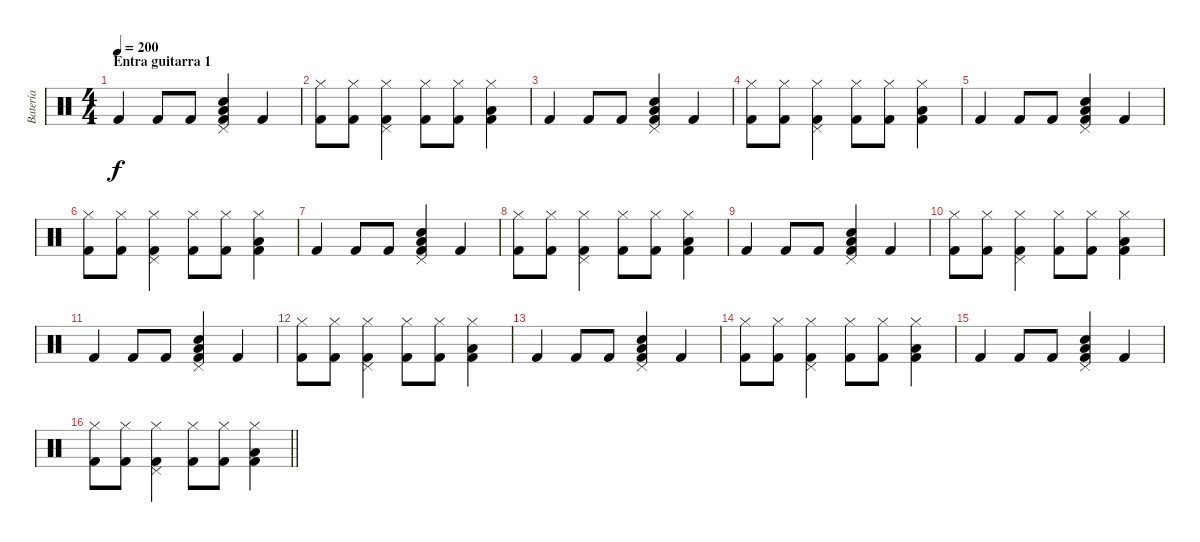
\track ("Batería" "Batería") {instrument percussion}
\staff {score}
\articulation defaults
\ts (4 4)
\section ("" "Entra guitarra 1")
\tempo 200
\clef neutral
\ks c "Kick (hit) 2".4{dy f} "Kick (hit) 2".8 "Kick (hit) 2".8
("Low Floor Tom (hit)" "Electric Snare (hit)" "Pedal Hi-Hat (hit)" "Kick (hit) 2").4 "Kick (hit) 2".4 |
("Hi-Hat (closed)" "Kick (hit) 2").8 ("Hi-Hat (closed)" "Kick (hit) 2").8 ("Hi-Hat (closed)" "Pedal Hi-Hat (hit)" "Kick (hit) 2").4 ("Hi-Hat (closed)" "Kick (hit) 2").8 ("Hi-Hat (closed)" "Kick (hit) 2").8 ("Hi-Hat (closed)" "Low Floor Tom (hit)" "Kick (hit) 2").4 |
"Kick (hit) 2".4 "Kick (hit) 2".8 "Kick (hit) 2".8 ("Low Floor Tom (hit)" "Electric Snare (hit)" "Pedal Hi-Hat (hit)" "Kick (hit) 2").4 "Kick (hit) 2".4 |
("Hi-Hat (closed)" "Kick (hit) 2").8 ("Hi-Hat (closed)" "Kick (hit) 2").8 ("Hi-Hat (closed)" "Pedal Hi-Hat (hit)" "Kick (hit) 2").4 ("Hi-Hat (closed)" "Kick (hit) 2").8 ("Hi-Hat (closed)" "Kick (hit) 2").8 ("Hi-Hat (closed)" "Low Floor Tom (hit)" "Kick (hit) 2").4 |
"Kick (hit) 2".4 "Kick (hit) 2".8 "Kick (hit) 2".8 ("Low Floor Tom (hit)" "Electric Snare (hit)" "Pedal Hi-Hat (hit)" "Kick (hit) 2").4 "Kick (hit) 2".4 |
("Hi-Hat (closed)" "Kick (hit) 2").8 ("Hi-Hat (closed)" "Kick (hit) 2").8 ("Hi-Hat (closed)" "Pedal Hi-Hat (hit)" "Kick (hit) 2").4 ("Hi-Hat (closed)" "Kick (hit) 2").8 ("Hi-Hat (closed)" "Kick (hit) 2").8 ("Hi-Hat (closed)" "Low Floor Tom (hit)" "Kick (hit) 2").4 |
"Kick (hit) 2".4 "Kick (hit) 2".8 "Kick (hit) 2".8 ("Low Floor Tom (hit)" "Electric Snare (hit)" "Pedal Hi-Hat (hit)" "Kick (hit) 2").4 "Kick (hit) 2".4 |
("Hi-Hat (closed)" "Kick (hit) 2").8 ("Hi-Hat (closed)" "Kick (hit) 2").8 ("Hi-Hat (closed)" "Pedal Hi-Hat (hit)" "Kick (hit) 2").4 ("Hi-Hat (closed)" "Kick (hit) 2").8 ("Hi-Hat (closed)" "Kick (hit) 2").8 ("Hi-Hat (closed)" "Low Floor Tom (hit)" "Kick (hit) 2").4 |
"Kick (hit) 2".4 "Kick (hit) 2".8 "Kick (hit) 2".8 ("Low Floor Tom (hit)" "Electric Snare (hit)" "Pedal Hi-Hat (hit)" "Kick (hit) 2").4 "Kick (hit) 2".4 |
("Hi-Hat (closed)" "Kick (hit) 2").8 ("Hi-Hat (closed)" "Kick (hit) 2").8 ("Hi-Hat (closed)" "Pedal Hi-Hat (hit)" "Kick (hit) 2").4 ("Hi-Hat (closed)" "Kick (hit) 2").8 ("Hi-Hat (closed)" "Kick (hit) 2").8 ("Hi-Hat (closed)" "Low Floor Tom (hit)" "Kick (hit) 2").4 |
"Kick (hit) 2".4 "Kick (hit) 2".8 "Kick (hit) 2".8 ("Low Floor Tom (hit)" "Electric Snare (hit)" "Pedal Hi-Hat (hit)" "Kick (hit) 2").4 "Kick (hit) 2".4 |
("Hi-Hat (closed)" "Kick (hit) 2").8 ("Hi-Hat (closed)" "Kick (hit) 2").8 ("Hi-Hat (closed)" "Pedal Hi-Hat (hit)" "Kick (hit) 2").4 ("Hi-Hat (closed)" "Kick (hit) 2").8 ("Hi-Hat (closed)" "Kick (hit) 2").8 ("Hi-Hat (closed)" "Low Floor Tom (hit)" "Kick (hit) 2").4 |
"Kick (hit) 2".4 "Kick (hit) 2".8 "Kick (hit) 2".8 ("Low Floor Tom (hit)" "Electric Snare (hit)" "Pedal Hi-Hat (hit)" "Kick (hit) 2").4 "Kick (hit) 2".4 |
("Hi-Hat (closed)" "Kick (hit) 2").8 ("Hi-Hat (closed)" "Kick (hit) 2").8 ("Hi-Hat (closed)" "Pedal Hi-Hat (hit)" "Kick (hit) 2").4 ("Hi-Hat (closed)" "Kick (hit) 2").8 ("Hi-Hat (closed)" "Kick (hit) 2").8 ("Hi-Hat (closed)" "Low Floor Tom (hit)" "Kick (hit) 2").4 |
"Kick (hit) 2".4 "Kick (hit) 2".8 "Kick (hit) 2".8 ("Low Floor Tom (hit)" "Electric Snare (hit)" "Pedal Hi-Hat (hit)" "Kick (hit) 2").4 "Kick (hit) 2".4 |
\barLineRight lightlight
("Hi-Hat (closed)" "Kick (hit) 2").8 ("Hi-Hat (closed)" "Kick (hit) 2").8 ("Hi-Hat (closed)" "Pedal Hi-Hat (hit)" "Kick (hit) 2").4 ("Hi-Hat (closed)" "Kick (hit) 2").8 ("Hi-Hat (closed)" "Kick (hit) 2").8 ("Hi-Hat (closed)" "Low Floor Tom (hit)" "Kick (hit) 2").4
